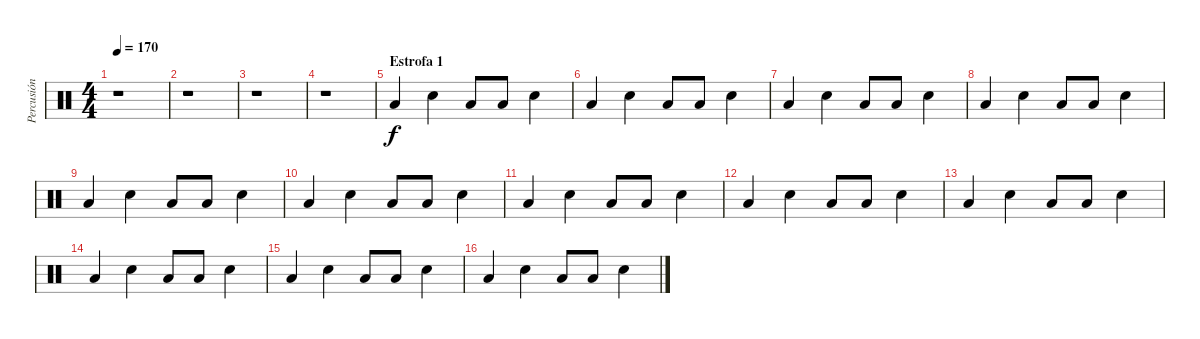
\track ("Percusión" "Percusión") {instrument percussion}
\staff {score}
\articulation defaults
\ts (4 4)
\tempo 170
\clef neutral
\ks c
r.1{dy f} |
r.1 |
r.1 |
r.1 |
\section ("" "Estrofa 1")
"Low Floor Tom (hit)".4 "Snare (hit) 2".4 "Low Floor Tom (hit)".8 "Low Floor Tom (hit)".8 "Snare (hit) 2".4 |
"Low Floor Tom (hit)".4 "Snare (hit) 2".4 "Low Floor Tom (hit)".8 "Low Floor Tom (hit)".8 "Snare (hit) 2".4 |
"Low Floor Tom (hit)".4 "Snare (hit) 2".4 "Low Floor Tom (hit)".8 "Low Floor Tom (hit)".8 "Snare (hit) 2".4 |
"Low Floor Tom (hit)".4 "Snare (hit) 2".4 "Low Floor Tom (hit)".8 "Low Floor Tom (hit)".8 "Snare (hit) 2".4 |
"Low Floor Tom (hit)".4 "Snare (hit) 2".4 "Low Floor Tom (hit)".8 "Low Floor Tom (hit)".8 "Snare (hit) 2".4 |
"Low Floor Tom (hit)".4 "Snare (hit) 2".4 "Low Floor Tom (hit)".8 "Low Floor Tom (hit)".8 "Snare (hit) 2".4 |
"Low Floor Tom (hit)".4 "Snare (hit) 2".4 "Low Floor Tom (hit)".8 "Low Floor Tom (hit)".8 "Snare (hit) 2".4 |
"Low Floor Tom (hit)".4 "Snare (hit) 2".4 "Low Floor Tom (hit)".8 "Low Floor Tom (hit)".8 "Snare (hit) 2".4 |
"Low Floor Tom (hit)".4 "Snare (hit) 2".4 "Low Floor Tom (hit)".8 "Low Floor Tom (hit)".8 "Snare (hit) 2".4 |
"Low Floor Tom (hit)".4 "Snare (hit) 2".4 "Low Floor Tom (hit)".8 "Low Floor Tom (hit)".8 "Snare (hit) 2".4 |
"Low Floor Tom (hit)".4 "Snare (hit) 2".4 "Low Floor Tom (hit)".8 "Low Floor Tom (hit)".8 "Snare (hit) 2".4 |
"Low Floor Tom (hit)".4 "Snare (hit) 2".4 "Low Floor Tom (hit)".8 "Low Floor Tom (hit)".8 "Snare (hit) 2".4
